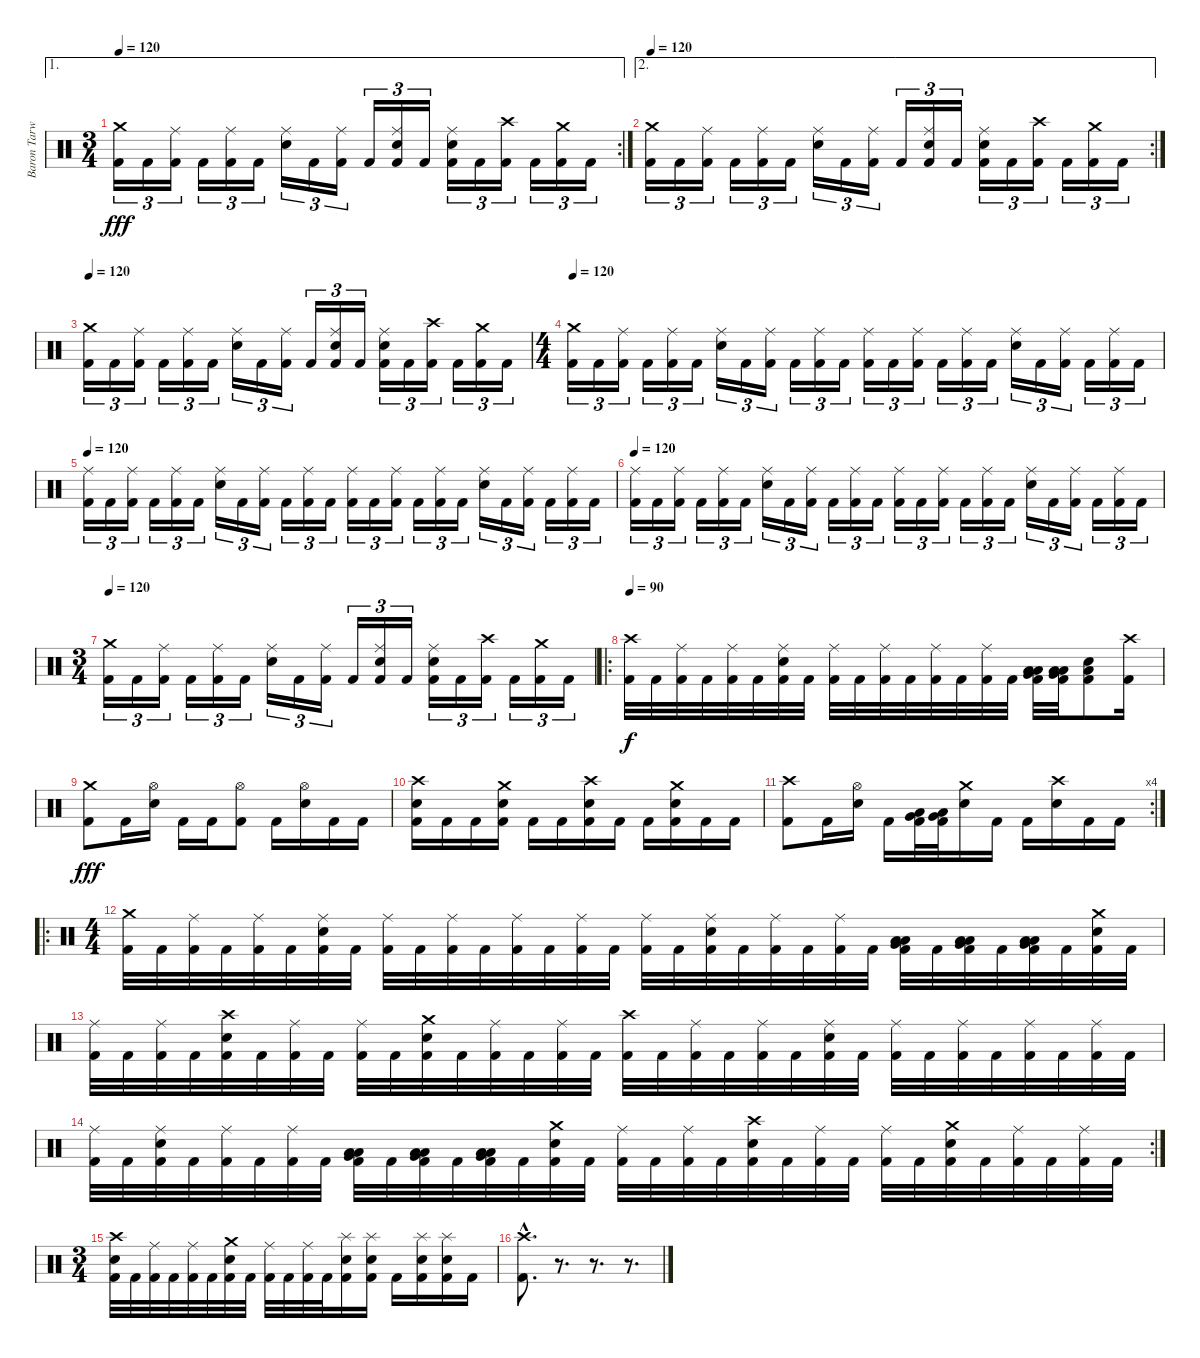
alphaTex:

\track ("Baron Tarwonen" "Baron Tarw") {instrument percussion}
\staff {score}
\articulation defaults
\ae 1
\rc 2
\ts (3 4)
\tempo 120
\clef neutral
\ks c
("Crash medium (hit)" "Kick (hit) 2").16{tu (3 2) dy fff} "Kick (hit) 2".16{tu (3 2)} ("Ride (middle)" "Kick (hit) 2").16{tu (3 2)} "Kick (hit) 2".16{tu (3 2)} ("Ride (middle)" "Kick (hit) 2").16{tu (3 2)} "Kick (hit) 2".16{tu (3 2)} ("Ride (middle)" "Snare (hit) 2").16{tu (3 2)} "Kick (hit) 2".16{tu (3 2)} ("Ride (middle)" "Kick (hit) 2").16{tu (3 2)} "Kick (hit) 2".16{tu (3 2)} ("Ride (middle)" "Snare (hit) 2" "Kick (hit) 2").16{tu (3 2)} "Kick (hit) 2".16{tu (3 2)} ("Ride (middle)" "Snare (hit) 2" "Kick (hit) 2").16{tu (3 2)} "Kick (hit) 2".16{tu (3 2)} ("Crash high (hit)" "Kick (hit) 2").16{tu (3 2)} "Kick (hit) 2".16{tu (3 2)} ("Crash medium (hit)" "Kick (hit) 2").16{tu (3 2)} "Kick (hit) 2".16{tu (3 2)} |
\ae 2
\rc 2
\tempo 120
("Crash medium (hit)" "Kick (hit) 2").16{tu (3 2)} "Kick (hit) 2".16{tu (3 2)} ("Ride (middle)" "Kick (hit) 2").16{tu (3 2)} "Kick (hit) 2".16{tu (3 2)} ("Ride (middle)" "Kick (hit) 2").16{tu (3 2)} "Kick (hit) 2".16{tu (3 2)} ("Ride (middle)" "Snare (hit) 2").16{tu (3 2)} "Kick (hit) 2".16{tu (3 2)} ("Ride (middle)" "Kick (hit) 2").16{tu (3 2)} "Kick (hit) 2".16{tu (3 2)} ("Ride (middle)" "Snare (hit) 2" "Kick (hit) 2").16{tu (3 2)} "Kick (hit) 2".16{tu (3 2)} ("Ride (middle)" "Snare (hit) 2" "Kick (hit) 2").16{tu (3 2)} "Kick (hit) 2".16{tu (3 2)} ("Crash high (hit)" "Kick (hit) 2").16{tu (3 2)} "Kick (hit) 2".16{tu (3 2)} ("Crash medium (hit)" "Kick (hit) 2").16{tu (3 2)} "Kick (hit) 2".16{tu (3 2)} |
\tempo 120
("Crash medium (hit)" "Kick (hit) 2").16{tu (3 2)} "Kick (hit) 2".16{tu (3 2)} ("Ride (middle)" "Kick (hit) 2").16{tu (3 2)} "Kick (hit) 2".16{tu (3 2)} ("Ride (middle)" "Kick (hit) 2").16{tu (3 2)} "Kick (hit) 2".16{tu (3 2)} ("Ride (middle)" "Snare (hit) 2").16{tu (3 2)} "Kick (hit) 2".16{tu (3 2)} ("Ride (middle)" "Kick (hit) 2").16{tu (3 2)} "Kick (hit) 2".16{tu (3 2)} ("Ride (middle)" "Snare (hit) 2" "Kick (hit) 2").16{tu (3 2)} "Kick (hit) 2".16{tu (3 2)} ("Ride (middle)" "Snare (hit) 2" "Kick (hit) 2").16{tu (3 2)} "Kick (hit) 2".16{tu (3 2)} ("Crash high (hit)" "Kick (hit) 2").16{tu (3 2)} "Kick (hit) 2".16{tu (3 2)} ("Crash medium (hit)" "Kick (hit) 2").16{tu (3 2)} "Kick (hit) 2".16{tu (3 2)} |
\ts (4 4)
\tempo 120
("Crash medium (hit)" "Kick (hit) 2").16{tu (3 2)} "Kick (hit) 2".16{tu (3 2)} ("Ride (middle)" "Kick (hit) 2").16{tu (3 2)} "Kick (hit) 2".16{tu (3 2)} ("Ride (middle)" "Kick (hit) 2").16{tu (3 2)} "Kick (hit) 2".16{tu (3 2)} ("Ride (middle)" "Snare (hit) 2").16{tu (3 2)} "Kick (hit) 2".16{tu (3 2)} ("Ride (middle)" "Kick (hit) 2").16{tu (3 2)} "Kick (hit) 2".16{tu (3 2)} ("Ride (middle)" "Kick (hit) 2").16{tu (3 2)} "Kick (hit) 2".16{tu (3 2)} ("Ride (middle)" "Kick (hit) 2").16{tu (3 2)} "Kick (hit) 2".16{tu (3 2)} ("Ride (middle)" "Kick (hit) 2").16{tu (3 2)} "Kick (hit) 2".16{tu (3 2)} ("Ride (middle)" "Kick (hit) 2").16{tu (3 2)} "Kick (hit) 2".16{tu (3 2)} ("Ride (middle)" "Snare (hit) 2").16{tu (3 2)} "Kick (hit) 2".16{tu (3 2)} ("Ride (middle)" "Kick (hit) 2").16{tu (3 2)} "Kick (hit) 2".16{tu (3 2)} ("Ride (middle)" "Kick (hit) 2").16{tu (3 2)} "Kick (hit) 2".16{tu (3 2)} |
\tempo 120
("Ride (middle)" "Kick (hit) 2").16{tu (3 2)} "Kick (hit) 2".16{tu (3 2)} ("Ride (middle)" "Kick (hit) 2").16{tu (3 2)} "Kick (hit) 2".16{tu (3 2)} ("Ride (middle)" "Kick (hit) 2").16{tu (3 2)} "Kick (hit) 2".16{tu (3 2)} ("Ride (middle)" "Snare (hit) 2").16{tu (3 2)} "Kick (hit) 2".16{tu (3 2)} ("Ride (middle)" "Kick (hit) 2").16{tu (3 2)} "Kick (hit) 2".16{tu (3 2)} ("Ride (middle)" "Kick (hit) 2").16{tu (3 2)} "Kick (hit) 2".16{tu (3 2)} ("Ride (middle)" "Kick (hit) 2").16{tu (3 2)} "Kick (hit) 2".16{tu (3 2)} ("Ride (middle)" "Kick (hit) 2").16{tu (3 2)} "Kick (hit) 2".16{tu (3 2)} ("Ride (middle)" "Kick (hit) 2").16{tu (3 2)} "Kick (hit) 2".16{tu (3 2)} ("Ride (middle)" "Snare (hit) 2").16{tu (3 2)} "Kick (hit) 2".16{tu (3 2)} ("Ride (middle)" "Kick (hit) 2").16{tu (3 2)} "Kick (hit) 2".16{tu (3 2)} ("Ride (middle)" "Kick (hit) 2").16{tu (3 2)} "Kick (hit) 2".16{tu (3 2)} |
\tempo 120
("Ride (middle)" "Kick (hit) 2").16{tu (3 2)} "Kick (hit) 2".16{tu (3 2)} ("Ride (middle)" "Kick (hit) 2").16{tu (3 2)} "Kick (hit) 2".16{tu (3 2)} ("Ride (middle)" "Kick (hit) 2").16{tu (3 2)} "Kick (hit) 2".16{tu (3 2)} ("Ride (middle)" "Snare (hit) 2").16{tu (3 2)} "Kick (hit) 2".16{tu (3 2)} ("Ride (middle)" "Kick (hit) 2").16{tu (3 2)} "Kick (hit) 2".16{tu (3 2)} ("Ride (middle)" "Kick (hit) 2").16{tu (3 2)} "Kick (hit) 2".16{tu (3 2)} ("Ride (middle)" "Kick (hit) 2").16{tu (3 2)} "Kick (hit) 2".16{tu (3 2)} ("Ride (middle)" "Kick (hit) 2").16{tu (3 2)} "Kick (hit) 2".16{tu (3 2)} ("Ride (middle)" "Kick (hit) 2").16{tu (3 2)} "Kick (hit) 2".16{tu (3 2)} ("Ride (middle)" "Snare (hit) 2").16{tu (3 2)} "Kick (hit) 2".16{tu (3 2)} ("Ride (middle)" "Kick (hit) 2").16{tu (3 2)} "Kick (hit) 2".16{tu (3 2)} ("Ride (middle)" "Kick (hit) 2").16{tu (3 2)} "Kick (hit) 2".16{tu (3 2)} |
\ts (3 4)
\tempo 120
("Crash medium (hit)" "Kick (hit) 2").16{tu (3 2)} "Kick (hit) 2".16{tu (3 2)} ("Ride (middle)" "Kick (hit) 2").16{tu (3 2)} "Kick (hit) 2".16{tu (3 2)} ("Ride (middle)" "Kick (hit) 2").16{tu (3 2)} "Kick (hit) 2".16{tu (3 2)} ("Ride (middle)" "Snare (hit) 2").16{tu (3 2)} "Kick (hit) 2".16{tu (3 2)} ("Ride (middle)" "Kick (hit) 2").16{tu (3 2)} "Kick (hit) 2".16{tu (3 2)} ("Ride (middle)" "Snare (hit) 2" "Kick (hit) 2").16{tu (3 2)} "Kick (hit) 2".16{tu (3 2)} ("Ride (middle)" "Snare (hit) 2" "Kick (hit) 2").16{tu (3 2)} "Kick (hit) 2".16{tu (3 2)} ("Crash high (hit)" "Kick (hit) 2").16{tu (3 2)} "Kick (hit) 2".16{tu (3 2)} ("Crash medium (hit)" "Kick (hit) 2").16{tu (3 2)} "Kick (hit) 2".16{tu (3 2)} |
\ro
\tempo 90
("Crash high (hit)" "Kick (hit) 2").32{dy f} "Kick (hit) 2".32 ("Ride (middle)" "Kick (hit) 2").32 "Kick (hit) 2".32 ("Ride (middle)" "Kick (hit) 2").32 "Kick (hit) 2".32 ("Ride (middle)" "Snare (hit) 2" "Kick (hit) 2").32 "Kick (hit) 2".32 ("Ride (middle)" "Kick (hit) 2").32 "Kick (hit) 2".32 ("Ride (middle)" "Kick (hit) 2").32 "Kick (hit) 2".32 ("Ride (middle)" "Kick (hit) 2").32 "Kick (hit) 2".32 ("Ride (middle)" "Kick (hit) 2").32 "Kick (hit) 2".32 ("Low Tom (hit)" "Very Low Tom (hit)" "Low Floor Tom (hit)" "Kick (hit) 2").32 ("Low Tom (hit)" "Very Low Tom (hit)" "Low Floor Tom (hit)" "Kick (hit) 2").32 ("Snare (hit) 2" "Low Floor Tom (hit)" "Kick (hit) 2").8 ("Crash high (hit)" "Kick (hit) 2").16 |
("Crash medium (hit)" "Kick (hit) 2").8{dy fff} "Kick (hit) 2".16 ("Hi-Hat (open)" "Snare (hit) 2").16 "Kick (hit) 2".16 "Kick (hit) 2".16 ("Hi-Hat (open)" "Kick (hit) 2").8 "Kick (hit) 2".16 ("Hi-Hat (open)" "Snare (hit) 2").16 "Kick (hit) 2".16 "Kick (hit) 2".16 |
("Crash high (hit)" "Snare (hit) 2" "Kick (hit) 2").16 "Kick (hit) 2".16 "Kick (hit) 2".16 ("Crash medium (hit)" "Snare (hit) 2" "Kick (hit) 2").16 "Kick (hit) 2".16 "Kick (hit) 2".16 ("Crash high (hit)" "Snare (hit) 2" "Kick (hit) 2").16 "Kick (hit) 2".16 "Kick (hit) 2".16 ("Crash medium (hit)" "Snare (hit) 2" "Kick (hit) 2").16 "Kick (hit) 2".16 "Kick (hit) 2".16 |
\rc 4
("Crash high (hit)" "Kick (hit) 2").8 "Kick (hit) 2".16 ("Hi-Hat (open)" "Snare (hit) 2").16 "Kick (hit) 2".16 ("Very Low Tom (hit)" "Low Floor Tom (hit)" "Kick (hit) 2").32 ("Very Low Tom (hit)" "Low Floor Tom (hit)" "Kick (hit) 2").32 ("Crash medium (hit)" "Snare (hit) 2").16 "Kick (hit) 2".16 "Kick (hit) 2".16 ("Crash high (hit)" "Snare (hit) 2").16 "Kick (hit) 2".16 "Kick (hit) 2".16 |
\ro
\ts (4 4)
("Crash medium (hit)" "Kick (hit) 2").32 "Kick (hit) 2".32 ("Ride (middle)" "Kick (hit) 2").32 "Kick (hit) 2".32 ("Ride (middle)" "Kick (hit) 2").32 "Kick (hit) 2".32 ("Ride (middle)" "Snare (hit) 2" "Kick (hit) 2").32 "Kick (hit) 2".32 ("Ride (middle)" "Kick (hit) 2").32 "Kick (hit) 2".32 ("Ride (middle)" "Kick (hit) 2").32 "Kick (hit) 2".32 ("Ride (middle)" "Kick (hit) 2").32 "Kick (hit) 2".32 ("Ride (middle)" "Kick (hit) 2").32 "Kick (hit) 2".32 ("Ride (middle)" "Kick (hit) 2").32 "Kick (hit) 2".32 ("Ride (middle)" "Snare (hit) 2" "Kick (hit) 2").32 "Kick (hit) 2".32 ("Ride (middle)" "Kick (hit) 2").32 "Kick (hit) 2".32 ("Ride (middle)" "Kick (hit) 2").32 "Kick (hit) 2".32 ("Low Tom (hit)" "Low Floor Tom (hit)" "Very Low Tom (hit)" "Kick (hit) 2").32 "Kick (hit) 2".32 ("Low Tom (hit)" "Low Floor Tom (hit)" "Very Low Tom (hit)" "Kick (hit) 2").32 "Kick (hit) 2".32 ("Low Tom (hit)" "Low Floor Tom (hit)" "Very Low Tom (hit)" "Kick (hit) 2").32 "Kick (hit) 2".32 ("Crash medium (hit)" "Snare (hit) 2" "Kick (hit) 2").32 "Kick (hit) 2".32 |
("Ride (middle)" "Kick (hit) 2").32 "Kick (hit) 2".32 ("Ride (middle)" "Kick (hit) 2").32 "Kick (hit) 2".32 ("Crash high (hit)" "Snare (hit) 2" "Kick (hit) 2").32 "Kick (hit) 2".32 ("Ride (middle)" "Kick (hit) 2").32 "Kick (hit) 2".32 ("Ride (middle)" "Kick (hit) 2").32 "Kick (hit) 2".32 ("Crash medium (hit)" "Snare (hit) 2" "Kick (hit) 2").32 "Kick (hit) 2".32 ("Ride (middle)" "Kick (hit) 2").32 "Kick (hit) 2".32 ("Ride (middle)" "Kick (hit) 2").32 "Kick (hit) 2".32 ("Crash high (hit)" "Kick (hit) 2").32 "Kick (hit) 2".32 ("Ride (middle)" "Kick (hit) 2").32 "Kick (hit) 2".32 ("Ride (middle)" "Kick (hit) 2").32 "Kick (hit) 2".32 ("Ride (middle)" "Snare (hit) 2" "Kick (hit) 2").32 "Kick (hit) 2".32 ("Ride (middle)" "Kick (hit) 2").32 "Kick (hit) 2".32 ("Ride (middle)" "Kick (hit) 2").32 "Kick (hit) 2".32 ("Ride (middle)" "Kick (hit) 2").32 "Kick (hit) 2".32 ("Ride (middle)" "Kick (hit) 2").32 "Kick (hit) 2".32 |
\rc 2
("Ride (middle)" "Kick (hit) 2").32 "Kick (hit) 2".32 ("Ride (middle)" "Snare (hit) 2" "Kick (hit) 2").32 "Kick (hit) 2".32 ("Ride (middle)" "Kick (hit) 2").32 "Kick (hit) 2".32 ("Ride (middle)" "Kick (hit) 2").32 "Kick (hit) 2".32 ("Low Tom (hit)" "Very Low Tom (hit)" "Low Floor Tom (hit)" "Kick (hit) 2").32 "Kick (hit) 2".32 ("Low Tom (hit)" "Very Low Tom (hit)" "Low Floor Tom (hit)" "Kick (hit) 2").32 "Kick (hit) 2".32 ("Low Tom (hit)" "Very Low Tom (hit)" "Low Floor Tom (hit)" "Kick (hit) 2").32 "Kick (hit) 2".32 ("Crash medium (hit)" "Snare (hit) 2" "Kick (hit) 2").32 "Kick (hit) 2".32 ("Ride (middle)" "Kick (hit) 2").32 "Kick (hit) 2".32 ("Ride (middle)" "Kick (hit) 2").32 "Kick (hit) 2".32 ("Crash high (hit)" "Snare (hit) 2" "Kick (hit) 2").32 "Kick (hit) 2".32 ("Ride (middle)" "Kick (hit) 2").32 "Kick (hit) 2".32 ("Ride (middle)" "Kick (hit) 2").32 "Kick (hit) 2".32 ("Crash medium (hit)" "Snare (hit) 2" "Kick (hit) 2").32 "Kick (hit) 2".32 ("Ride (middle)" "Kick (hit) 2").32 "Kick (hit) 2".32 ("Ride (middle)" "Kick (hit) 2").32 "Kick (hit) 2".32 |
\ts (3 4)
("Crash high (hit)" "Snare (hit) 2" "Kick (hit) 2").32 "Kick (hit) 2".32 ("Ride (middle)" "Kick (hit) 2").32 "Kick (hit) 2".32 ("Ride (middle)" "Kick (hit) 2").32 "Kick (hit) 2".32 ("Crash medium (hit)" "Snare (hit) 2" "Kick (hit) 2").32 "Kick (hit) 2".32 ("Ride (middle)" "Kick (hit) 2").32 "Kick (hit) 2".32 ("Ride (middle)" "Kick (hit) 2").32 "Kick (hit) 2".32 ("Splash (hit)" "Snare (hit) 2" "Kick (hit) 2").16 ("Splash (hit)" "Snare (hit) 2" "Kick (hit) 2").16 "Kick (hit) 2".16 ("Splash (hit)" "Snare (hit) 2" "Kick (hit) 2").16 ("Splash (hit)" "Snare (hit) 2" "Kick (hit) 2").16 "Kick (hit) 2".16 |
("Crash high (hit)"{hac} "Kick (hit) 2"{hac}).8{d} r.8{d} r.8{d} r.8{d}
